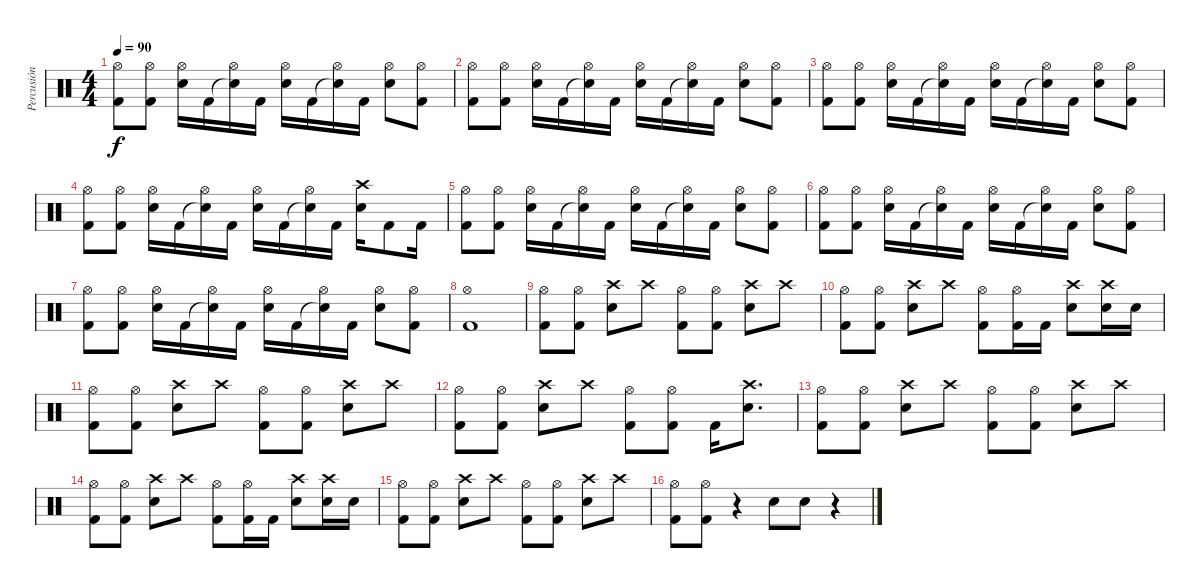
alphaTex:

\track ("Percusión" "Percusión") {instrument percussion}
\staff
\articulation defaults
\ts (4 4)
\tempo 90
\clef neutral
\ks c
("Kick (hit) 2" "Hi-Hat (open)").8{dy f} ("Kick (hit) 2" "Hi-Hat (open)").8 ("Electric Snare (hit)" "Hi-Hat (open)").16 "Kick (hit) 2".16 ("Snare (hit)"{t} "Hi-Hat (open)").16 "Kick (hit) 2".16 ("Electric Snare (hit)" "Hi-Hat (open)").16 "Kick (hit) 2".16 ("Snare (hit)"{t} "Hi-Hat (open)").16 "Kick (hit) 2".16 ("Electric Snare (hit)" "Hi-Hat (open)").8 ("Kick (hit) 2" "Hi-Hat (open)").8 |
("Kick (hit) 2" "Hi-Hat (open)").8 ("Kick (hit) 2" "Hi-Hat (open)").8 ("Electric Snare (hit)" "Hi-Hat (open)").16 "Kick (hit) 2".16 ("Snare (hit)"{t} "Hi-Hat (open)").16 "Kick (hit) 2".16 ("Electric Snare (hit)" "Hi-Hat (open)").16 "Kick (hit) 2".16 ("Snare (hit)"{t} "Hi-Hat (open)").16 "Kick (hit) 2".16 ("Electric Snare (hit)" "Hi-Hat (open)").8 ("Kick (hit) 2" "Hi-Hat (open)").8 |
("Kick (hit) 2" "Hi-Hat (open)").8 ("Kick (hit) 2" "Hi-Hat (open)").8 ("Electric Snare (hit)" "Hi-Hat (open)").16 "Kick (hit) 2".16 ("Snare (hit)"{t} "Hi-Hat (open)").16 "Kick (hit) 2".16 ("Electric Snare (hit)" "Hi-Hat (open)").16 "Kick (hit) 2".16 ("Snare (hit)"{t} "Hi-Hat (open)").16 "Kick (hit) 2".16 ("Electric Snare (hit)" "Hi-Hat (open)").8 ("Kick (hit) 2" "Hi-Hat (open)").8 |
("Kick (hit) 2" "Hi-Hat (open)").8 ("Kick (hit) 2" "Hi-Hat (open)").8 ("Electric Snare (hit)" "Hi-Hat (open)").16 "Kick (hit) 2".16 ("Snare (hit)"{t} "Hi-Hat (open)").16 "Kick (hit) 2".16 ("Electric Snare (hit)" "Hi-Hat (open)").16 "Kick (hit) 2".16 ("Snare (hit)"{t} "Hi-Hat (open)").16 "Kick (hit) 2".16 ("Electric Snare (hit)" "Crash high (hit)").16 "Kick (hit) 2".8 "Kick (hit) 2".16 |
("Kick (hit) 2" "Hi-Hat (open)").8 ("Kick (hit) 2" "Hi-Hat (open)").8 ("Electric Snare (hit)" "Hi-Hat (open)").16 "Kick (hit) 2".16 ("Snare (hit)"{t} "Hi-Hat (open)").16 "Kick (hit) 2".16 ("Electric Snare (hit)" "Hi-Hat (open)").16 "Kick (hit) 2".16 ("Snare (hit)"{t} "Hi-Hat (open)").16 "Kick (hit) 2".16 ("Electric Snare (hit)" "Hi-Hat (open)").8 ("Kick (hit) 2" "Hi-Hat (open)").8 |
("Kick (hit) 2" "Hi-Hat (open)").8 ("Kick (hit) 2" "Hi-Hat (open)").8 ("Electric Snare (hit)" "Hi-Hat (open)").16 "Kick (hit) 2".16 ("Snare (hit)"{t} "Hi-Hat (open)").16 "Kick (hit) 2".16 ("Electric Snare (hit)" "Hi-Hat (open)").16 "Kick (hit) 2".16 ("Snare (hit)"{t} "Hi-Hat (open)").16 "Kick (hit) 2".16 ("Electric Snare (hit)" "Hi-Hat (open)").8 ("Kick (hit) 2" "Hi-Hat (open)").8 |
("Kick (hit) 2" "Hi-Hat (open)").8 ("Kick (hit) 2" "Hi-Hat (open)").8 ("Electric Snare (hit)" "Hi-Hat (open)").16 "Kick (hit) 2".16 ("Snare (hit)"{t} "Hi-Hat (open)").16 "Kick (hit) 2".16 ("Electric Snare (hit)" "Hi-Hat (open)").16 "Kick (hit) 2".16 ("Snare (hit)"{t} "Hi-Hat (open)").16 "Kick (hit) 2".16 ("Electric Snare (hit)" "Hi-Hat (open)").8 ("Kick (hit) 2" "Hi-Hat (open)").8 |
("Kick (hit) 2" "Hi-Hat (open)").1 |
("Kick (hit) 2" "Hi-Hat (open)").8 ("Kick (hit) 2" "Hi-Hat (open)").8 ("Electric Snare (hit)" "Crash high (hit)").8 "Crash high (hit)".8 ("Kick (hit) 2" "Hi-Hat (open)").8 ("Kick (hit) 2" "Hi-Hat (open)").8 ("Electric Snare (hit)" "Crash high (hit)").8 "Crash high (hit)".8 |
("Kick (hit) 2" "Hi-Hat (open)").8 ("Kick (hit) 2" "Hi-Hat (open)").8 ("Electric Snare (hit)" "Crash high (hit)").8 "Crash high (hit)".8 ("Kick (hit) 2" "Hi-Hat (open)").8 ("Kick (hit) 2" "Hi-Hat (open)").16 "Kick (hit) 2".16 ("Electric Snare (hit)" "Crash high (hit)").8 ("Electric Snare (hit)" "Crash high (hit)").16 "Electric Snare (hit)".16 |
("Kick (hit) 2" "Hi-Hat (open)").8 ("Kick (hit) 2" "Hi-Hat (open)").8 ("Electric Snare (hit)" "Crash high (hit)").8 "Crash high (hit)".8 ("Kick (hit) 2" "Hi-Hat (open)").8 ("Kick (hit) 2" "Hi-Hat (open)").8 ("Electric Snare (hit)" "Crash high (hit)").8 "Crash high (hit)".8 |
("Kick (hit) 2" "Hi-Hat (open)").8 ("Kick (hit) 2" "Hi-Hat (open)").8 ("Electric Snare (hit)" "Crash high (hit)").8 "Crash high (hit)".8 ("Kick (hit) 2" "Hi-Hat (open)").8 ("Kick (hit) 2" "Hi-Hat (open)").8 "Kick (hit) 2".16 ("Electric Snare (hit)" "Crash high (hit)").8{d} |
("Kick (hit) 2" "Hi-Hat (open)").8 ("Kick (hit) 2" "Hi-Hat (open)").8 ("Electric Snare (hit)" "Crash high (hit)").8 "Crash high (hit)".8 ("Kick (hit) 2" "Hi-Hat (open)").8 ("Kick (hit) 2" "Hi-Hat (open)").8 ("Electric Snare (hit)" "Crash high (hit)").8 "Crash high (hit)".8 |
("Kick (hit) 2" "Hi-Hat (open)").8 ("Kick (hit) 2" "Hi-Hat (open)").8 ("Electric Snare (hit)" "Crash high (hit)").8 "Crash high (hit)".8 ("Kick (hit) 2" "Hi-Hat (open)").8 ("Kick (hit) 2" "Hi-Hat (open)").16 "Kick (hit) 2".16 ("Electric Snare (hit)" "Crash high (hit)").8 ("Electric Snare (hit)" "Crash high (hit)").16 "Electric Snare (hit)".16 |
("Kick (hit) 2" "Hi-Hat (open)").8 ("Kick (hit) 2" "Hi-Hat (open)").8 ("Electric Snare (hit)" "Crash high (hit)").8 "Crash high (hit)".8 ("Kick (hit) 2" "Hi-Hat (open)").8 ("Kick (hit) 2" "Hi-Hat (open)").8 ("Electric Snare (hit)" "Crash high (hit)").8 "Crash high (hit)".8 |
("Kick (hit) 2" "Hi-Hat (open)").8 ("Kick (hit) 2" "Hi-Hat (open)").8 r.4 "Electric Snare (hit)".8 "Electric Snare (hit)".8 r.4
